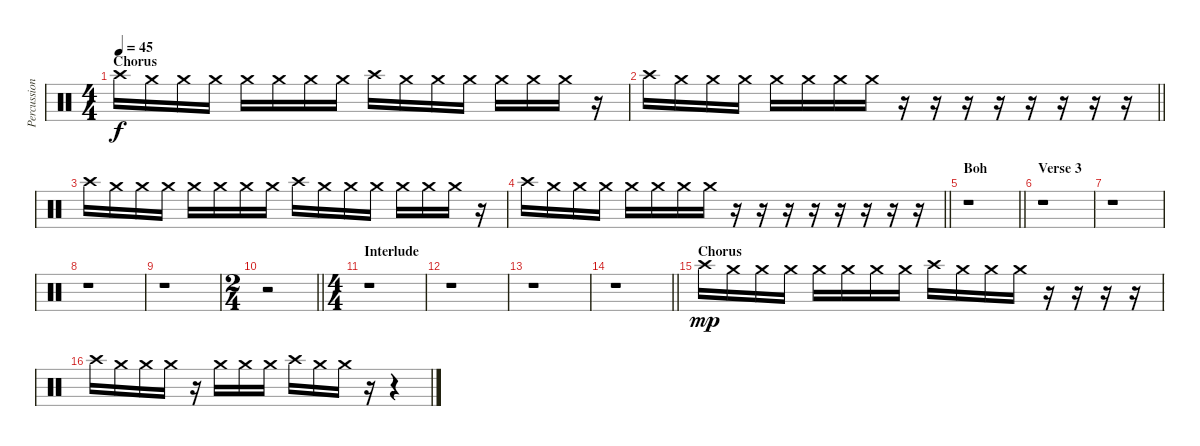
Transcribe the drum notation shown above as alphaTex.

\track ("Percussioni" "Percussion") {instrument percussion}
\staff {score}
\articulation defaults
\ts (4 4)
\section ("" "Chorus")
\tempo 45
\clef neutral
\ks c "Crash high (hit)".16{dy f} "Crash medium (hit)".16 "Crash medium (hit)".16 "Crash medium (hit)".16 "Crash medium (hit)".16 "Crash medium (hit)".16 "Crash medium (hit)".16 "Crash medium (hit)".16 "Crash high (hit)".16 "Crash medium (hit)".16 "Crash medium (hit)".16 "Crash medium (hit)".16 "Crash medium (hit)".16 "Crash medium (hit)".16 "Crash medium (hit)".16
r.16 |
\barLineRight lightlight "Crash high (hit)".16 "Crash medium (hit)".16 "Crash medium (hit)".16 "Crash medium (hit)".16 "Crash medium (hit)".16 "Crash medium (hit)".16 "Crash medium (hit)".16 "Crash medium (hit)".16
r.16 r.16 r.16 r.16 r.16 r.16 r.16 r.16 |
"Crash high (hit)".16 "Crash medium (hit)".16 "Crash medium (hit)".16 "Crash medium (hit)".16 "Crash medium (hit)".16 "Crash medium (hit)".16 "Crash medium (hit)".16 "Crash medium (hit)".16 "Crash high (hit)".16 "Crash medium (hit)".16 "Crash medium (hit)".16 "Crash medium (hit)".16 "Crash medium (hit)".16 "Crash medium (hit)".16 "Crash medium (hit)".16 r.16 |
\barLineRight lightlight "Crash high (hit)".16 "Crash medium (hit)".16 "Crash medium (hit)".16 "Crash medium (hit)".16 "Crash medium (hit)".16 "Crash medium (hit)".16 "Crash medium (hit)".16 "Crash medium (hit)".16
r.16 r.16 r.16 r.16 r.16 r.16 r.16 r.16 |
\section ("" "Boh")
\barLineRight lightlight
r.1 |
\section ("" "Verse 3")
r.1 |
r.1 |
r.1 |
r.1 |
\ts (2 4)
\barLineRight lightlight
r.2 |
\ts (4 4)
\section ("" "Interlude")
r.1 |
r.1 |
r.1 |
\barLineRight lightlight
r.1 |
\section ("" "Chorus")
"Crash high (hit)".16{dy mp} "Crash medium (hit)".16 "Crash medium (hit)".16 "Crash medium (hit)".16 "Crash medium (hit)".16 "Crash medium (hit)".16 "Crash medium (hit)".16 "Crash medium (hit)".16 "Crash high (hit)".16 "Crash medium (hit)".16 "Crash medium (hit)".16 "Crash medium (hit)".16 r.16 r.16 r.16 r.16 |
"Crash high (hit)".16 "Crash medium (hit)".16 "Crash medium (hit)".16 "Crash medium (hit)".16 r.16 "Crash medium (hit)".16 "Crash medium (hit)".16 "Crash medium (hit)".16 "Crash high (hit)".16 "Crash medium (hit)".16 "Crash medium (hit)".16 r.16 r.4
